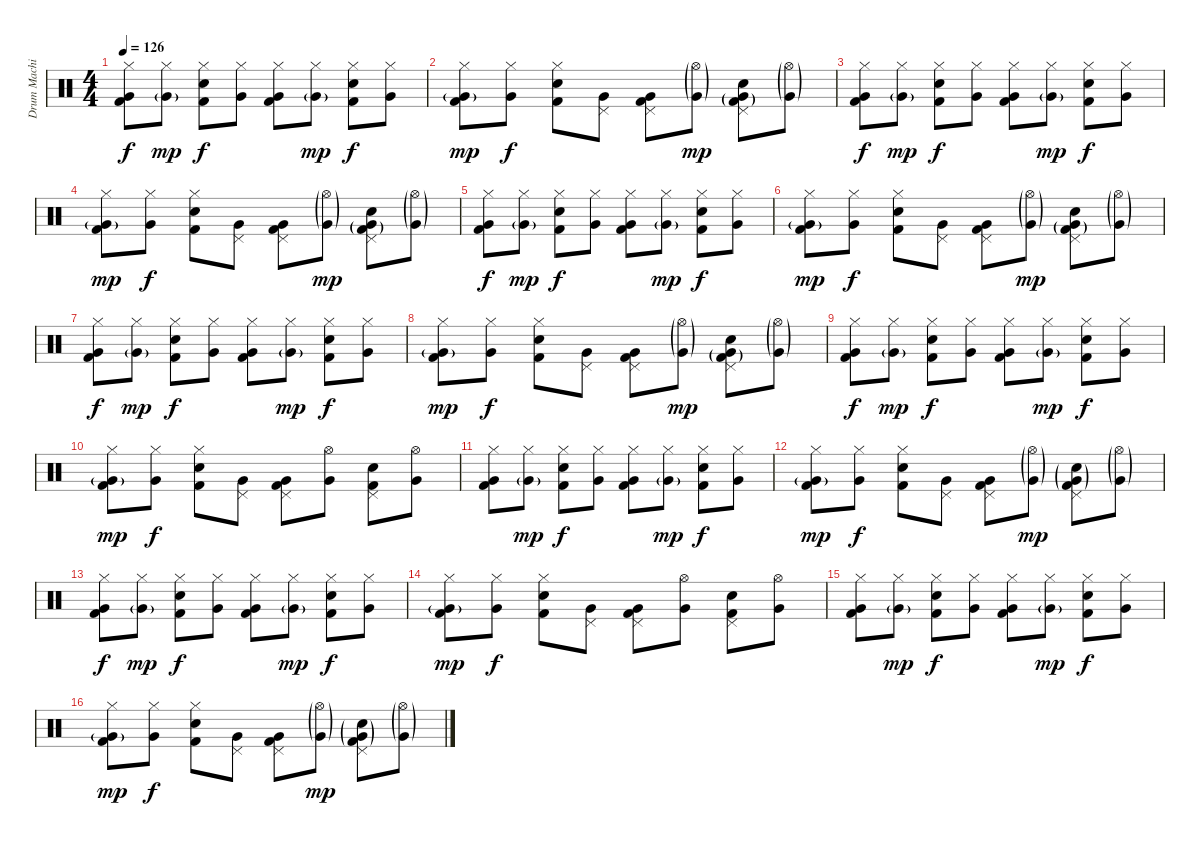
\track ("Drum Machine 1" "Drum Machi") {instrument percussion}
\staff {score}
\articulation defaults
\ts (4 4)
\tempo 126
\clef neutral
\ks c
("Hi-Hat (closed)" "Very Low Tom (hit)" "Kick (hit) 2").8{dy f} ("Hi-Hat (closed)" "Very Low Tom (hit)"{g}).8{dy mp} ("Hi-Hat (closed)" "Electric Snare (hit)" "Kick (hit) 2").8{dy f} ("Hi-Hat (closed)" "Very Low Tom (hit)").8 ("Hi-Hat (closed)" "Very Low Tom (hit)" "Kick (hit) 2").8 ("Hi-Hat (closed)" "Very Low Tom (hit)"{g}).8{dy mp} ("Hi-Hat (closed)" "Electric Snare (hit)" "Kick (hit) 2").8{dy f} ("Hi-Hat (closed)" "Very Low Tom (hit)").8 |
("Hi-Hat (closed)" "Very Low Tom (hit)"{g} "Kick (hit) 2").8{dy mp} ("Hi-Hat (closed)" "Very Low Tom (hit)").8{dy f} ("Hi-Hat (closed)" "Electric Snare (hit)" "Kick (hit) 2").8 ("Pedal Hi-Hat (hit)" "Very Low Tom (hit)").8 ("Pedal Hi-Hat (hit)" "Very Low Tom (hit)" "Kick (hit) 2").8 ("Hi-Hat (open)"{g} "Very Low Tom (hit)"{g}).8{dy mp} ("Pedal Hi-Hat (hit)" "Electric Snare (hit)" "Very Low Tom (hit)"{g} "Kick (hit) 2"{g}).8 ("Hi-Hat (open)"{g} "Very Low Tom (hit)"{g}).8 |
("Hi-Hat (closed)" "Very Low Tom (hit)" "Kick (hit) 2").8{dy f} ("Hi-Hat (closed)" "Very Low Tom (hit)"{g}).8{dy mp} ("Hi-Hat (closed)" "Electric Snare (hit)" "Kick (hit) 2").8{dy f} ("Hi-Hat (closed)" "Very Low Tom (hit)").8 ("Hi-Hat (closed)" "Very Low Tom (hit)" "Kick (hit) 2").8 ("Hi-Hat (closed)" "Very Low Tom (hit)"{g}).8{dy mp} ("Hi-Hat (closed)" "Electric Snare (hit)" "Kick (hit) 2").8{dy f} ("Hi-Hat (closed)" "Very Low Tom (hit)").8 |
("Hi-Hat (closed)" "Very Low Tom (hit)"{g} "Kick (hit) 2").8{dy mp} ("Hi-Hat (closed)" "Very Low Tom (hit)").8{dy f} ("Hi-Hat (closed)" "Electric Snare (hit)" "Kick (hit) 2").8 ("Pedal Hi-Hat (hit)" "Very Low Tom (hit)").8 ("Pedal Hi-Hat (hit)" "Very Low Tom (hit)" "Kick (hit) 2").8 ("Hi-Hat (open)"{g} "Very Low Tom (hit)"{g}).8{dy mp} ("Pedal Hi-Hat (hit)" "Electric Snare (hit)" "Very Low Tom (hit)"{g} "Kick (hit) 2"{g}).8 ("Hi-Hat (open)"{g} "Very Low Tom (hit)"{g}).8 |
("Hi-Hat (closed)" "Very Low Tom (hit)" "Kick (hit) 2").8{dy f} ("Hi-Hat (closed)" "Very Low Tom (hit)"{g}).8{dy mp} ("Hi-Hat (closed)" "Electric Snare (hit)" "Kick (hit) 2").8{dy f} ("Hi-Hat (closed)" "Very Low Tom (hit)").8 ("Hi-Hat (closed)" "Very Low Tom (hit)" "Kick (hit) 2").8 ("Hi-Hat (closed)" "Very Low Tom (hit)"{g}).8{dy mp} ("Hi-Hat (closed)" "Electric Snare (hit)" "Kick (hit) 2").8{dy f} ("Hi-Hat (closed)" "Very Low Tom (hit)").8 |
("Hi-Hat (closed)" "Very Low Tom (hit)"{g} "Kick (hit) 2").8{dy mp} ("Hi-Hat (closed)" "Very Low Tom (hit)").8{dy f} ("Hi-Hat (closed)" "Electric Snare (hit)" "Kick (hit) 2").8 ("Pedal Hi-Hat (hit)" "Very Low Tom (hit)").8 ("Pedal Hi-Hat (hit)" "Very Low Tom (hit)" "Kick (hit) 2").8 ("Hi-Hat (open)"{g} "Very Low Tom (hit)"{g}).8{dy mp} ("Pedal Hi-Hat (hit)" "Electric Snare (hit)" "Very Low Tom (hit)"{g} "Kick (hit) 2"{g}).8 ("Hi-Hat (open)"{g} "Very Low Tom (hit)"{g}).8 |
("Hi-Hat (closed)" "Very Low Tom (hit)" "Kick (hit) 2").8{dy f} ("Hi-Hat (closed)" "Very Low Tom (hit)"{g}).8{dy mp} ("Hi-Hat (closed)" "Electric Snare (hit)" "Kick (hit) 2").8{dy f} ("Hi-Hat (closed)" "Very Low Tom (hit)").8 ("Hi-Hat (closed)" "Very Low Tom (hit)" "Kick (hit) 2").8 ("Hi-Hat (closed)" "Very Low Tom (hit)"{g}).8{dy mp} ("Hi-Hat (closed)" "Electric Snare (hit)" "Kick (hit) 2").8{dy f} ("Hi-Hat (closed)" "Very Low Tom (hit)").8 |
("Hi-Hat (closed)" "Very Low Tom (hit)"{g} "Kick (hit) 2").8{dy mp} ("Hi-Hat (closed)" "Very Low Tom (hit)").8{dy f} ("Hi-Hat (closed)" "Electric Snare (hit)" "Kick (hit) 2").8 ("Pedal Hi-Hat (hit)" "Very Low Tom (hit)").8 ("Pedal Hi-Hat (hit)" "Very Low Tom (hit)" "Kick (hit) 2").8 ("Hi-Hat (open)"{g} "Very Low Tom (hit)"{g}).8{dy mp} ("Pedal Hi-Hat (hit)" "Electric Snare (hit)" "Very Low Tom (hit)"{g} "Kick (hit) 2"{g}).8 ("Hi-Hat (open)"{g} "Very Low Tom (hit)"{g}).8 |
("Hi-Hat (closed)" "Very Low Tom (hit)" "Kick (hit) 2").8{dy f} ("Hi-Hat (closed)" "Very Low Tom (hit)"{g}).8{dy mp} ("Hi-Hat (closed)" "Electric Snare (hit)" "Kick (hit) 2").8{dy f} ("Hi-Hat (closed)" "Very Low Tom (hit)").8 ("Hi-Hat (closed)" "Very Low Tom (hit)" "Kick (hit) 2").8 ("Hi-Hat (closed)" "Very Low Tom (hit)"{g}).8{dy mp} ("Hi-Hat (closed)" "Electric Snare (hit)" "Kick (hit) 2").8{dy f} ("Hi-Hat (closed)" "Very Low Tom (hit)").8 |
("Hi-Hat (closed)" "Very Low Tom (hit)"{g} "Kick (hit) 2").8{dy mp} ("Hi-Hat (closed)" "Very Low Tom (hit)").8{dy f} ("Hi-Hat (closed)" "Electric Snare (hit)" "Kick (hit) 2").8 ("Pedal Hi-Hat (hit)" "Very Low Tom (hit)").8 ("Pedal Hi-Hat (hit)" "Very Low Tom (hit)" "Kick (hit) 2").8 ("Hi-Hat (open)" "Very Low Tom (hit)").8 ("Pedal Hi-Hat (hit)" "Electric Snare (hit)" "Kick (hit) 2").8 ("Hi-Hat (open)" "Very Low Tom (hit)").8 |
("Hi-Hat (closed)" "Very Low Tom (hit)" "Kick (hit) 2").8 ("Hi-Hat (closed)" "Very Low Tom (hit)"{g}).8{dy mp} ("Hi-Hat (closed)" "Electric Snare (hit)" "Kick (hit) 2").8{dy f} ("Hi-Hat (closed)" "Very Low Tom (hit)").8 ("Hi-Hat (closed)" "Very Low Tom (hit)" "Kick (hit) 2").8 ("Hi-Hat (closed)" "Very Low Tom (hit)"{g}).8{dy mp} ("Hi-Hat (closed)" "Electric Snare (hit)" "Kick (hit) 2").8{dy f} ("Hi-Hat (closed)" "Very Low Tom (hit)").8 |
("Hi-Hat (closed)" "Very Low Tom (hit)"{g} "Kick (hit) 2").8{dy mp} ("Hi-Hat (closed)" "Very Low Tom (hit)").8{dy f} ("Hi-Hat (closed)" "Electric Snare (hit)" "Kick (hit) 2").8 ("Pedal Hi-Hat (hit)" "Very Low Tom (hit)").8 ("Pedal Hi-Hat (hit)" "Very Low Tom (hit)" "Kick (hit) 2").8 ("Hi-Hat (open)"{g} "Very Low Tom (hit)"{g}).8{dy mp} ("Pedal Hi-Hat (hit)" "Electric Snare (hit)"{g} "Very Low Tom (hit)"{g} "Kick (hit) 2"{g}).8 ("Hi-Hat (open)"{g} "Very Low Tom (hit)"{g}).8 |
("Hi-Hat (closed)" "Very Low Tom (hit)" "Kick (hit) 2").8{dy f} ("Hi-Hat (closed)" "Very Low Tom (hit)"{g}).8{dy mp} ("Hi-Hat (closed)" "Electric Snare (hit)" "Kick (hit) 2").8{dy f} ("Hi-Hat (closed)" "Very Low Tom (hit)").8 ("Hi-Hat (closed)" "Very Low Tom (hit)" "Kick (hit) 2").8 ("Hi-Hat (closed)" "Very Low Tom (hit)"{g}).8{dy mp} ("Hi-Hat (closed)" "Electric Snare (hit)" "Kick (hit) 2").8{dy f} ("Hi-Hat (closed)" "Very Low Tom (hit)").8 |
("Hi-Hat (closed)" "Very Low Tom (hit)"{g} "Kick (hit) 2").8{dy mp} ("Hi-Hat (closed)" "Very Low Tom (hit)").8{dy f} ("Hi-Hat (closed)" "Electric Snare (hit)" "Kick (hit) 2").8 ("Pedal Hi-Hat (hit)" "Very Low Tom (hit)").8 ("Pedal Hi-Hat (hit)" "Very Low Tom (hit)" "Kick (hit) 2").8 ("Hi-Hat (open)" "Very Low Tom (hit)").8 ("Pedal Hi-Hat (hit)" "Electric Snare (hit)" "Kick (hit) 2").8 ("Hi-Hat (open)" "Very Low Tom (hit)").8 |
("Hi-Hat (closed)" "Very Low Tom (hit)" "Kick (hit) 2").8 ("Hi-Hat (closed)" "Very Low Tom (hit)"{g}).8{dy mp} ("Hi-Hat (closed)" "Electric Snare (hit)" "Kick (hit) 2").8{dy f} ("Hi-Hat (closed)" "Very Low Tom (hit)").8 ("Hi-Hat (closed)" "Very Low Tom (hit)" "Kick (hit) 2").8 ("Hi-Hat (closed)" "Very Low Tom (hit)"{g}).8{dy mp} ("Hi-Hat (closed)" "Electric Snare (hit)" "Kick (hit) 2").8{dy f} ("Hi-Hat (closed)" "Very Low Tom (hit)").8 |
("Hi-Hat (closed)" "Very Low Tom (hit)"{g} "Kick (hit) 2").8{dy mp} ("Hi-Hat (closed)" "Very Low Tom (hit)").8{dy f} ("Hi-Hat (closed)" "Electric Snare (hit)" "Kick (hit) 2").8 ("Pedal Hi-Hat (hit)" "Very Low Tom (hit)").8 ("Pedal Hi-Hat (hit)" "Very Low Tom (hit)" "Kick (hit) 2").8 ("Hi-Hat (open)"{g} "Very Low Tom (hit)"{g}).8{dy mp} ("Pedal Hi-Hat (hit)" "Electric Snare (hit)"{g} "Very Low Tom (hit)"{g} "Kick (hit) 2"{g}).8 ("Hi-Hat (open)"{g} "Very Low Tom (hit)"{g}).8
